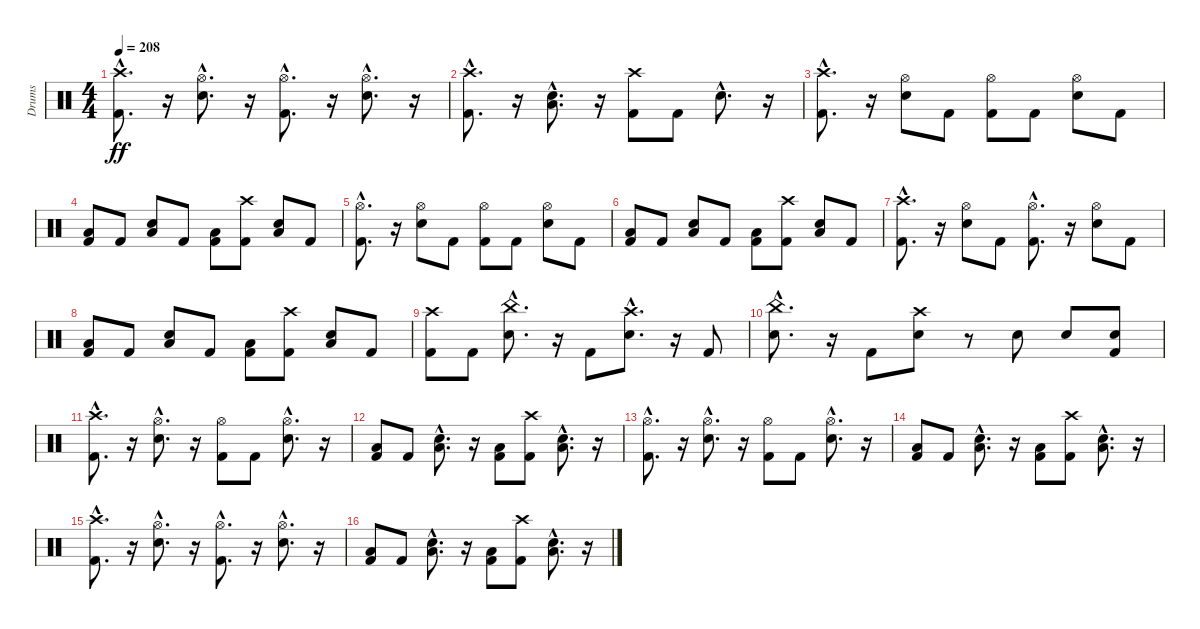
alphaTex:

\track ("Drums" "Drums") {instrument percussion}
\staff {score}
\articulation defaults
\ts (4 4)
\tempo 208
\clef neutral
\ks c
("Kick (hit) 2"{hac} "Crash high (hit)"{hac}).8{d dy ff} r.16 ("Snare (hit) 2"{hac} "Hi-Hat (open)"{hac}).8{d} r.16 ("Kick (hit) 2"{hac} "Hi-Hat (open)"{hac}).8{d} r.16 ("Snare (hit) 2"{hac} "Hi-Hat (open)"{hac}).8{d} r.16 |
("Kick (hit) 2"{hac} "Crash high (hit)"{hac}).8{d} r.16 ("Snare (hit) 2"{hac} "Low Tom (hit)"{hac}).8{d} r.16 ("Kick (hit) 2" "Crash high (hit)").8 "Kick (hit) 2".8 "Snare (hit) 2"{hac}.8{d} r.16 |
("Kick (hit) 2"{hac} "Crash high (hit)"{hac}).8{d} r.16 ("Snare (hit) 2" "Hi-Hat (open)").8 "Kick (hit) 2".8 ("Kick (hit) 2" "Hi-Hat (open)").8 "Kick (hit) 2".8 ("Snare (hit) 2" "Hi-Hat (open)").8 "Kick (hit) 2".8 |
("Kick (hit) 2" "Low Tom (hit)").8 "Kick (hit) 2".8 ("Snare (hit) 2" "Low Tom (hit)").8 "Kick (hit) 2".8 ("Kick (hit) 2" "Low Tom (hit)").8 ("Kick (hit) 2" "Crash high (hit)").8 ("Snare (hit) 2" "Low Tom (hit)").8 "Kick (hit) 2".8 |
("Kick (hit) 2"{hac} "Hi-Hat (open)"{hac}).8{d} r.16 ("Snare (hit) 2" "Hi-Hat (open)").8 "Kick (hit) 2".8 ("Kick (hit) 2" "Hi-Hat (open)").8 "Kick (hit) 2".8 ("Snare (hit) 2" "Hi-Hat (open)").8 "Kick (hit) 2".8 |
("Kick (hit) 2" "Low Tom (hit)").8 "Kick (hit) 2".8 ("Snare (hit) 2" "Low Tom (hit)").8 "Kick (hit) 2".8 ("Kick (hit) 2" "Low Tom (hit)").8 ("Kick (hit) 2" "Crash high (hit)").8 ("Snare (hit) 2" "Low Tom (hit)").8 "Kick (hit) 2".8 |
("Kick (hit) 2"{hac} "Crash high (hit)"{hac}).8{d} r.16 ("Snare (hit) 2" "Hi-Hat (open)").8 "Kick (hit) 2".8 ("Kick (hit) 2"{hac} "Hi-Hat (open)"{hac}).8{d} r.16 ("Snare (hit) 2" "Hi-Hat (open)").8 "Kick (hit) 2".8 |
("Kick (hit) 2" "Low Tom (hit)").8 "Kick (hit) 2".8 ("Snare (hit) 2" "Low Tom (hit)").8 "Kick (hit) 2".8 ("Kick (hit) 2" "Low Tom (hit)").8 ("Kick (hit) 2" "Crash high (hit)").8 ("Snare (hit) 2" "Low Tom (hit)").8 "Kick (hit) 2".8 |
("Kick (hit) 2" "Crash high (hit)").8 "Kick (hit) 2".8 ("Snare (hit) 2"{hac} "China (hit)"{hac}).8{d} r.16 "Kick (hit) 2".8 ("Snare (hit) 2"{hac} "Crash high (hit)"{hac}).8{d} r.16 "Kick (hit) 2".8 |
("Snare (hit) 2"{hac} "China (hit)"{hac}).8{d} r.16 "Kick (hit) 2".8 ("Snare (hit) 2" "Crash high (hit)").8 r.8 "Snare (hit) 2".8 "Snare (hit) 2".8 ("Kick (hit) 2" "Snare (hit) 2").8 |
("Kick (hit) 2"{hac} "Crash high (hit)"{hac}).8{d} r.16 ("Snare (hit) 2"{hac} "Hi-Hat (open)"{hac}).8{d} r.16 ("Kick (hit) 2" "Hi-Hat (open)").8 "Kick (hit) 2".8 ("Snare (hit) 2"{hac} "Hi-Hat (open)"{hac}).8{d} r.16 |
("Kick (hit) 2" "Low Tom (hit)").8 "Kick (hit) 2".8 ("Snare (hit) 2"{hac} "Low Tom (hit)"{hac}).8{d} r.16 ("Kick (hit) 2" "Low Tom (hit)").8 ("Kick (hit) 2" "Crash high (hit)").8 ("Snare (hit) 2"{hac} "Low Tom (hit)"{hac}).8{d} r.16 |
("Kick (hit) 2"{hac} "Hi-Hat (open)"{hac}).8{d} r.16 ("Snare (hit) 2"{hac} "Hi-Hat (open)"{hac}).8{d} r.16 ("Kick (hit) 2" "Hi-Hat (open)").8 "Kick (hit) 2".8 ("Snare (hit) 2"{hac} "Hi-Hat (open)"{hac}).8{d} r.16 |
("Kick (hit) 2" "Low Tom (hit)").8 "Kick (hit) 2".8 ("Snare (hit) 2"{hac} "Low Tom (hit)"{hac}).8{d} r.16 ("Kick (hit) 2" "Low Tom (hit)").8 ("Kick (hit) 2" "Crash high (hit)").8 ("Snare (hit) 2"{hac} "Low Tom (hit)"{hac}).8{d} r.16 |
("Kick (hit) 2"{hac} "Crash high (hit)"{hac}).8{d} r.16 ("Snare (hit) 2"{hac} "Hi-Hat (open)"{hac}).8{d} r.16 ("Kick (hit) 2"{hac} "Hi-Hat (open)"{hac}).8{d} r.16 ("Snare (hit) 2"{hac} "Hi-Hat (open)"{hac}).8{d} r.16 |
("Kick (hit) 2" "Low Tom (hit)").8 "Kick (hit) 2".8 ("Snare (hit) 2"{hac} "Low Tom (hit)"{hac}).8{d} r.16 ("Kick (hit) 2" "Low Tom (hit)").8 ("Kick (hit) 2" "Crash high (hit)").8 ("Snare (hit) 2"{hac} "Low Tom (hit)"{hac}).8{d} r.16
